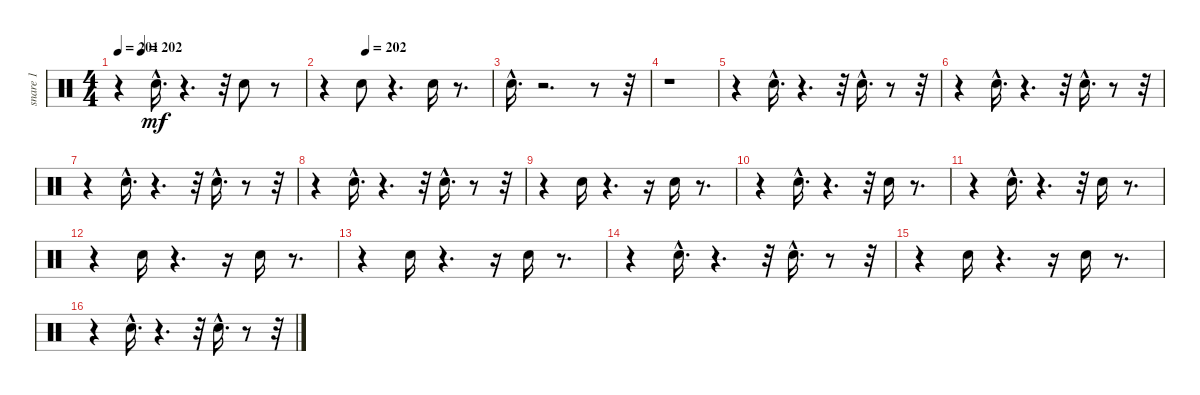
\track ("snare 1" "snare 1") {instrument percussion}
\staff {score}
\articulation defaults
\ts (4 4)
\tempo 201
\tempo (202 0.125)
\clef neutral
\ks c
r.4{dy mf} "Snare (hit) 2"{hac}.16{d} r.4{d} r.32 "Snare (hit) 2".8 r.8 |
\tempo (202 0.25)
r.4 "Snare (hit) 2".8 r.4{d} "Snare (hit) 2".16 r.8{d} |
"Snare (hit) 2"{hac}.16{d} r.2{d} r.8 r.32 |
r.1 |
r.4 "Snare (hit) 2"{hac}.16{d} r.4{d} r.32 "Snare (hit) 2"{hac}.16{d} r.8 r.32 |
r.4 "Snare (hit) 2"{hac}.16{d} r.4{d} r.32 "Snare (hit) 2"{hac}.16{d} r.8 r.32 |
r.4 "Snare (hit) 2"{hac}.16{d} r.4{d} r.32 "Snare (hit) 2"{hac}.16{d} r.8 r.32 |
r.4 "Snare (hit) 2"{hac}.16{d} r.4{d} r.32 "Snare (hit) 2"{hac}.16{d} r.8 r.32 |
r.4 "Snare (hit) 2".16 r.4{d} r.16 "Snare (hit) 2".16 r.8{d} |
r.4 "Snare (hit) 2"{hac}.16{d} r.4{d} r.32 "Snare (hit) 2".16 r.8{d} |
r.4 "Snare (hit) 2"{hac}.16{d} r.4{d} r.32 "Snare (hit) 2".16 r.8{d} |
r.4 "Snare (hit) 2".16 r.4{d} r.16 "Snare (hit) 2".16 r.8{d} |
r.4 "Snare (hit) 2".16 r.4{d} r.16 "Snare (hit) 2".16 r.8{d} |
r.4 "Snare (hit) 2"{hac}.16{d} r.4{d} r.32 "Snare (hit) 2"{hac}.16{d} r.8 r.32 |
r.4 "Snare (hit) 2".16 r.4{d} r.16 "Snare (hit) 2".16 r.8{d} |
r.4 "Snare (hit) 2"{hac}.16{d} r.4{d} r.32 "Snare (hit) 2"{hac}.16{d} r.8 r.32
